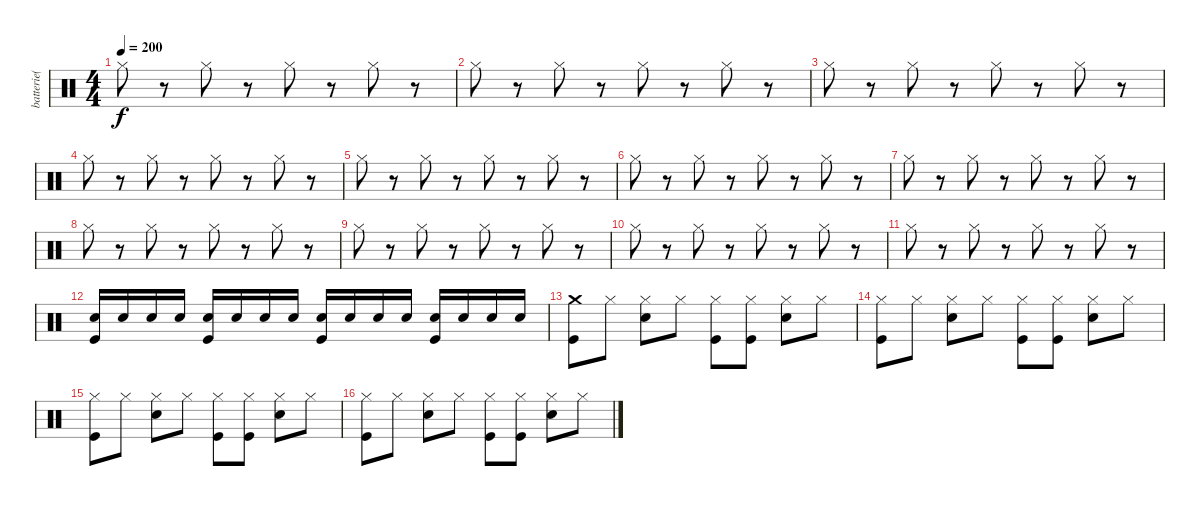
\track ("batterie( Guillaume ) " "batterie( ") {instrument percussion}
\staff {score}
\articulation defaults
\ts (4 4)
\tempo 200
\clef neutral
\ks c "Hi-Hat (closed)".8{dy f}
r.8 "Hi-Hat (closed)".8 r.8 "Hi-Hat (closed)".8 r.8 "Hi-Hat (closed)".8 r.8 |
"Hi-Hat (closed)".8 r.8 "Hi-Hat (closed)".8 r.8 "Hi-Hat (closed)".8 r.8 "Hi-Hat (closed)".8 r.8 |
"Hi-Hat (closed)".8 r.8 "Hi-Hat (closed)".8 r.8 "Hi-Hat (closed)".8 r.8 "Hi-Hat (closed)".8 r.8 |
"Hi-Hat (closed)".8 r.8 "Hi-Hat (closed)".8 r.8 "Hi-Hat (closed)".8 r.8 "Hi-Hat (closed)".8 r.8 |
"Hi-Hat (closed)".8{volume 10} r.8 "Hi-Hat (closed)".8 r.8 "Hi-Hat (closed)".8 r.8 "Hi-Hat (closed)".8 r.8 |
"Hi-Hat (closed)".8 r.8 "Hi-Hat (closed)".8 r.8 "Hi-Hat (closed)".8 r.8 "Hi-Hat (closed)".8 r.8 |
"Hi-Hat (closed)".8 r.8 "Hi-Hat (closed)".8 r.8 "Hi-Hat (closed)".8 r.8 "Hi-Hat (closed)".8 r.8 |
"Hi-Hat (closed)".8 r.8 "Hi-Hat (closed)".8 r.8 "Hi-Hat (closed)".8 r.8 "Hi-Hat (closed)".8 r.8 |
"Hi-Hat (closed)".8 r.8 "Hi-Hat (closed)".8 r.8 "Hi-Hat (closed)".8 r.8 "Hi-Hat (closed)".8 r.8 |
"Hi-Hat (closed)".8 r.8 "Hi-Hat (closed)".8 r.8 "Hi-Hat (closed)".8 r.8 "Hi-Hat (closed)".8 r.8 |
"Hi-Hat (closed)".8 r.8 "Hi-Hat (closed)".8 r.8 "Hi-Hat (closed)".8 r.8 "Hi-Hat (closed)".8 r.8 |
("Snare (hit) 2" "Kick (hit)").16 "Snare (hit) 2".16 "Snare (hit) 2".16 "Snare (hit) 2".16 ("Snare (hit) 2" "Kick (hit)").16 "Snare (hit) 2".16 "Snare (hit) 2".16 "Snare (hit) 2".16 ("Snare (hit) 2" "Kick (hit)").16 "Snare (hit) 2".16 "Snare (hit) 2".16 "Snare (hit) 2".16 ("Snare (hit) 2" "Kick (hit)").16 "Snare (hit) 2".16 "Snare (hit) 2".16 "Snare (hit) 2".16 |
("Crash medium (hit)" "Kick (hit)").8 "Hi-Hat (closed)".8 ("Hi-Hat (closed)" "Snare (hit) 2").8 "Hi-Hat (closed)".8 ("Hi-Hat (closed)" "Kick (hit)").8 ("Hi-Hat (closed)" "Kick (hit)").8 ("Hi-Hat (closed)" "Snare (hit) 2").8 "Hi-Hat (closed)".8 |
("Hi-Hat (closed)" "Kick (hit)").8 "Hi-Hat (closed)".8 ("Hi-Hat (closed)" "Snare (hit) 2").8 "Hi-Hat (closed)".8 ("Hi-Hat (closed)" "Kick (hit)").8 ("Hi-Hat (closed)" "Kick (hit)").8 ("Hi-Hat (closed)" "Snare (hit) 2").8 "Hi-Hat (closed)".8 |
("Hi-Hat (closed)" "Kick (hit)").8 "Hi-Hat (closed)".8 ("Hi-Hat (closed)" "Snare (hit) 2").8 "Hi-Hat (closed)".8 ("Hi-Hat (closed)" "Kick (hit)").8 ("Hi-Hat (closed)" "Kick (hit)").8 ("Hi-Hat (closed)" "Snare (hit) 2").8 "Hi-Hat (closed)".8 |
("Hi-Hat (closed)" "Kick (hit)").8 "Hi-Hat (closed)".8 ("Hi-Hat (closed)" "Snare (hit) 2").8 "Hi-Hat (closed)".8 ("Hi-Hat (closed)" "Kick (hit)").8 ("Hi-Hat (closed)" "Kick (hit)").8 ("Hi-Hat (closed)" "Snare (hit) 2").8 "Hi-Hat (closed)".8
